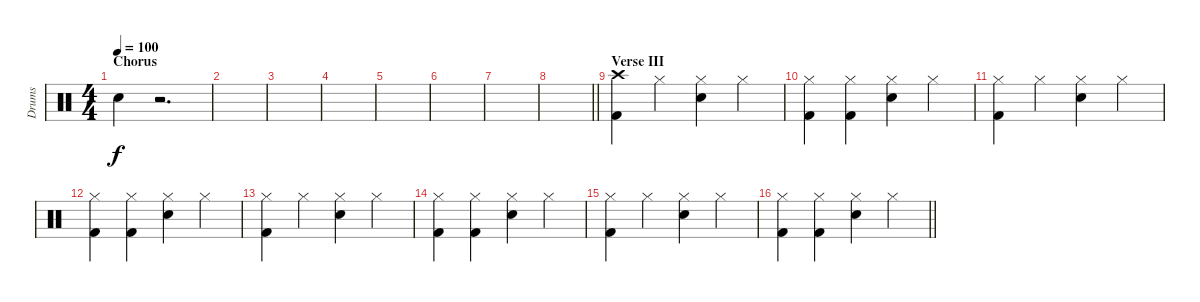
\track ("Drums" "Drums") {instrument percussion}
\staff {score}
\articulation defaults
\ts (4 4)
\section ("" "Chorus")
\tempo 100
\clef neutral
\ks c "Snare (hit)"{t}.4{dy f}
r.2{d} |
|
|
|
|
|
|
\barLineRight lightlight
|
\section ("" "Verse III")
("Crash high (hit)" "Kick (hit) 2").4 "Hi-Hat (closed)".4 ("Snare (hit) 2" "Hi-Hat (closed)").4 "Hi-Hat (closed)".4 |
("Hi-Hat (closed)" "Kick (hit) 2").4 ("Hi-Hat (closed)" "Kick (hit) 2").4 ("Snare (hit) 2" "Hi-Hat (closed)").4 "Hi-Hat (closed)".4 |
("Hi-Hat (closed)" "Kick (hit) 2").4 "Hi-Hat (closed)".4 ("Snare (hit) 2" "Hi-Hat (closed)").4 "Hi-Hat (closed)".4 |
("Hi-Hat (closed)" "Kick (hit) 2").4 ("Hi-Hat (closed)" "Kick (hit) 2").4 ("Snare (hit) 2" "Hi-Hat (closed)").4 "Hi-Hat (closed)".4 |
("Hi-Hat (closed)" "Kick (hit) 2").4 "Hi-Hat (closed)".4 ("Snare (hit) 2" "Hi-Hat (closed)").4 "Hi-Hat (closed)".4 |
("Hi-Hat (closed)" "Kick (hit) 2").4 ("Hi-Hat (closed)" "Kick (hit) 2").4 ("Snare (hit) 2" "Hi-Hat (closed)").4 "Hi-Hat (closed)".4 |
("Hi-Hat (closed)" "Kick (hit) 2").4 "Hi-Hat (closed)".4 ("Snare (hit) 2" "Hi-Hat (closed)").4 "Hi-Hat (closed)".4 |
\barLineRight lightlight
("Hi-Hat (closed)" "Kick (hit) 2").4 ("Hi-Hat (closed)" "Kick (hit) 2").4 ("Snare (hit) 2" "Hi-Hat (closed)").4 "Hi-Hat (closed)".4
